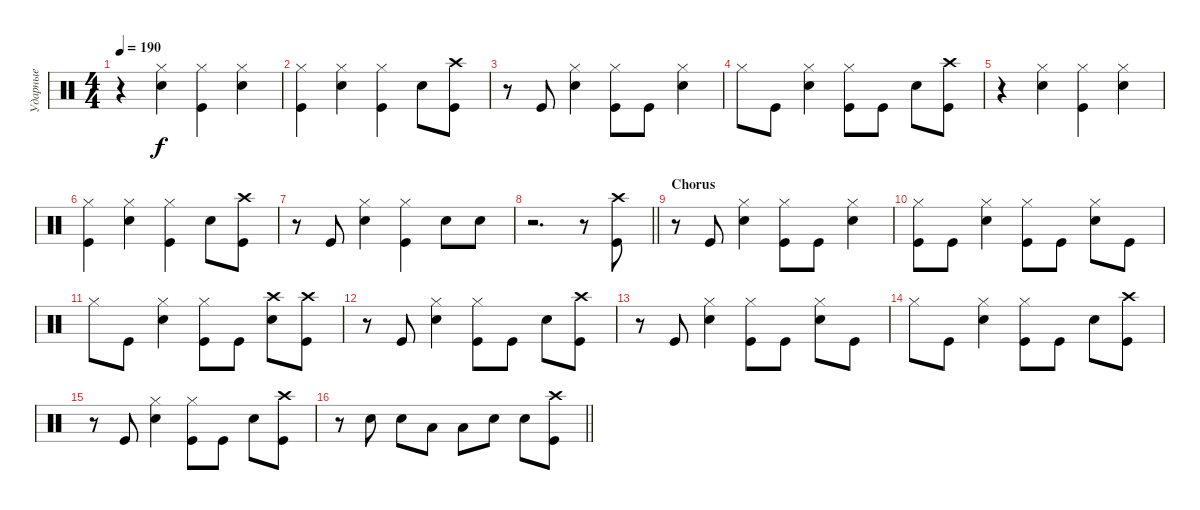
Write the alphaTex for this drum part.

\track ("Ударные" "Ударные") {instrument percussion}
\staff {score}
\articulation defaults
\ts (4 4)
\tempo 190
\clef neutral
\ks aminor
r.4{dy f} ("Snare (hit) 2" "Hi-Hat (closed)").4 ("Kick (hit)" "Hi-Hat (closed)").4 ("Snare (hit) 2" "Hi-Hat (closed)").4 |
("Kick (hit)" "Hi-Hat (closed)").4 ("Snare (hit) 2" "Hi-Hat (closed)").4 ("Kick (hit)" "Hi-Hat (closed)").4 "Snare (hit) 2".8 ("Kick (hit)" "Crash high (hit)").8 |
r.8 "Kick (hit)".8 ("Snare (hit) 2" "Hi-Hat (closed)").4 ("Kick (hit)" "Hi-Hat (closed)").8 "Kick (hit)".8 ("Snare (hit) 2" "Hi-Hat (closed)").4 |
"Hi-Hat (closed)".8 "Kick (hit)".8 ("Snare (hit) 2" "Hi-Hat (closed)").4 ("Kick (hit)" "Hi-Hat (closed)").8 "Kick (hit)".8 "Snare (hit) 2".8 ("Kick (hit)" "Crash high (hit)").8 |
r.4 ("Snare (hit) 2" "Hi-Hat (closed)").4 ("Kick (hit)" "Hi-Hat (closed)").4 ("Snare (hit) 2" "Hi-Hat (closed)").4 |
("Kick (hit)" "Hi-Hat (closed)").4 ("Snare (hit) 2" "Hi-Hat (closed)").4 ("Kick (hit)" "Hi-Hat (closed)").4 "Snare (hit) 2".8 ("Kick (hit)" "Crash high (hit)").8 |
r.8 "Kick (hit)".8 ("Snare (hit) 2" "Hi-Hat (closed)").4 ("Kick (hit)" "Hi-Hat (closed)").4 "Snare (hit) 2".8 "Snare (hit) 2".8 |
\barLineRight lightlight
r.2{d} r.8 ("Kick (hit)" "Crash high (hit)").8 |
\section ("" "Chorus")
r.8 "Kick (hit)".8 ("Snare (hit) 2" "Hi-Hat (closed)").4 ("Kick (hit)" "Hi-Hat (closed)").8 "Kick (hit)".8 ("Snare (hit) 2" "Hi-Hat (closed)").4 |
("Kick (hit)" "Hi-Hat (closed)").8 "Kick (hit)".8 ("Snare (hit) 2" "Hi-Hat (closed)").4 ("Kick (hit)" "Hi-Hat (closed)").8 "Kick (hit)".8 ("Snare (hit) 2" "Hi-Hat (closed)").8 "Kick (hit)".8 |
"Hi-Hat (closed)".8 "Kick (hit)".8 ("Snare (hit) 2" "Hi-Hat (closed)").4 ("Kick (hit)" "Hi-Hat (closed)").8 "Kick (hit)".8 ("Snare (hit) 2" "Crash high (hit)").8 ("Kick (hit)" "Crash high (hit)").8 |
r.8 "Kick (hit)".8 ("Snare (hit) 2" "Hi-Hat (closed)").4 ("Kick (hit)" "Hi-Hat (closed)").8 "Kick (hit)".8 "Snare (hit) 2".8 ("Kick (hit)" "Crash high (hit)").8 |
r.8 "Kick (hit)".8 ("Snare (hit) 2" "Hi-Hat (closed)").4 ("Kick (hit)" "Hi-Hat (closed)").8 "Kick (hit)".8 ("Snare (hit) 2" "Hi-Hat (closed)").8 "Kick (hit)".8 |
"Hi-Hat (closed)".8 "Kick (hit)".8 ("Snare (hit) 2" "Hi-Hat (closed)").4 ("Kick (hit)" "Hi-Hat (closed)").8 "Kick (hit)".8 "Snare (hit) 2".8 ("Kick (hit)" "Crash high (hit)").8 |
r.8 "Kick (hit)".8 ("Snare (hit) 2" "Hi-Hat (closed)").4 ("Kick (hit)" "Hi-Hat (closed)").8 "Kick (hit)".8 "Snare (hit) 2".8 ("Kick (hit)" "Crash high (hit)").8 |
\barLineRight lightlight
r.8 "Snare (hit) 2".8 "Snare (hit) 2".8 "Low Tom (hit)".8 "Low Tom (hit)".8 "Snare (hit) 2".8 "Snare (hit) 2".8 ("Kick (hit)" "Crash high (hit)").8
